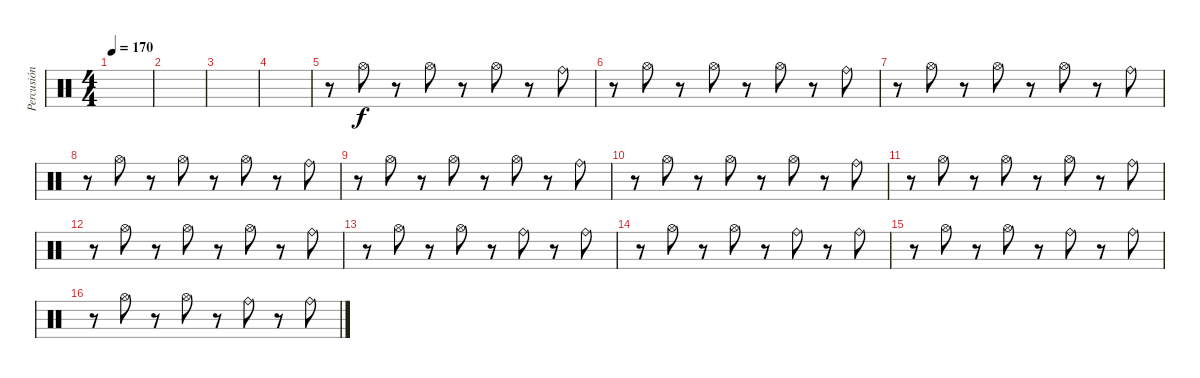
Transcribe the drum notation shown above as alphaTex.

\track ("Percusión" "Percusión") {instrument percussion}
\staff {score}
\articulation defaults
\ts (4 4)
\tempo 170
\clef neutral
\ks c
|
|
|
|
r.8 "Hi-Hat (open)".8 r.8 "Hi-Hat (open)".8 r.8 "Hi-Hat (open)".8 r.8 "Ride (bell)".8 |
r.8 "Hi-Hat (open)".8 r.8 "Hi-Hat (open)".8 r.8 "Hi-Hat (open)".8 r.8 "Ride (bell)".8 |
r.8 "Hi-Hat (open)".8 r.8 "Hi-Hat (open)".8 r.8 "Hi-Hat (open)".8 r.8 "Ride (bell)".8 |
r.8 "Hi-Hat (open)".8 r.8 "Hi-Hat (open)".8 r.8 "Hi-Hat (open)".8 r.8 "Ride (bell)".8 |
r.8 "Hi-Hat (open)".8 r.8 "Hi-Hat (open)".8 r.8 "Hi-Hat (open)".8 r.8 "Ride (bell)".8 |
r.8 "Hi-Hat (open)".8 r.8 "Hi-Hat (open)".8 r.8 "Hi-Hat (open)".8 r.8 "Ride (bell)".8 |
r.8 "Hi-Hat (open)".8 r.8 "Hi-Hat (open)".8 r.8 "Hi-Hat (open)".8 r.8 "Ride (bell)".8 |
r.8 "Hi-Hat (open)".8 r.8 "Hi-Hat (open)".8 r.8 "Hi-Hat (open)".8 r.8 "Ride (bell)".8 |
r.8 "Hi-Hat (open)".8 r.8 "Hi-Hat (open)".8 r.8 "Ride (bell)".8 r.8 "Ride (bell)".8 |
r.8 "Hi-Hat (open)".8 r.8 "Hi-Hat (open)".8 r.8 "Ride (bell)".8 r.8 "Ride (bell)".8 |
r.8 "Hi-Hat (open)".8 r.8 "Hi-Hat (open)".8 r.8 "Ride (bell)".8 r.8 "Ride (bell)".8 |
r.8 "Hi-Hat (open)".8 r.8 "Hi-Hat (open)".8 r.8 "Ride (bell)".8 r.8 "Ride (bell)".8
